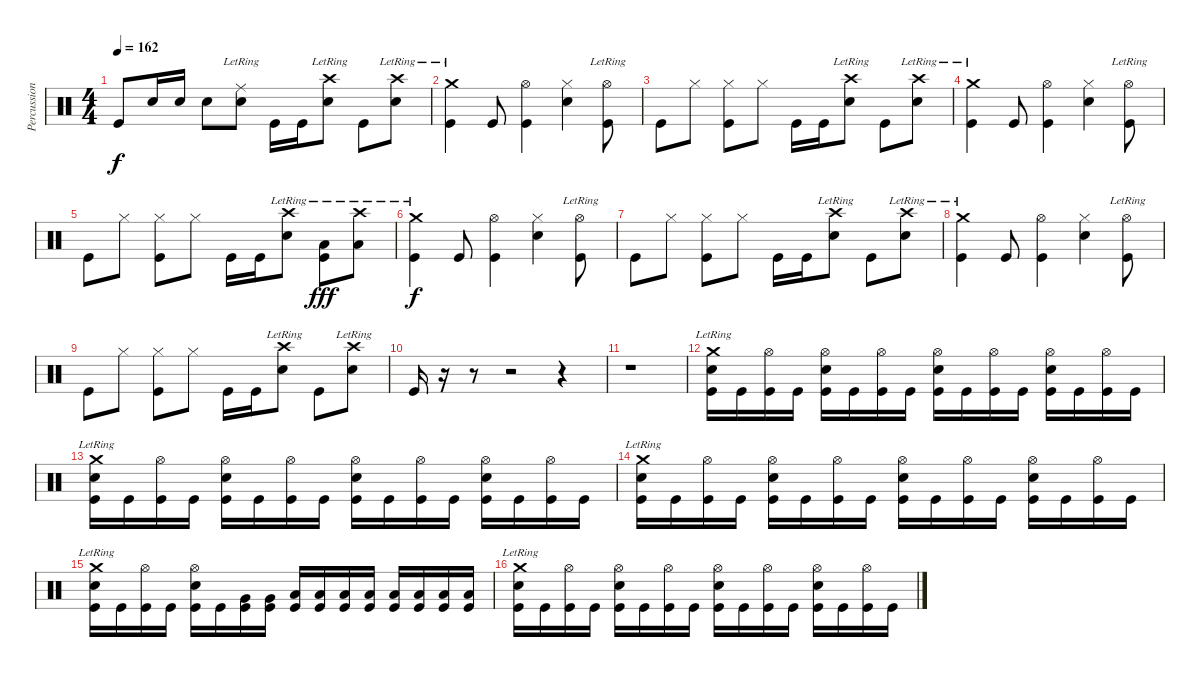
\track ("Percussions" "Percussion") {instrument percussion}
\staff {score}
\articulation defaults
\ts (4 4)
\tempo 162
\clef neutral
\ks c "Kick (hit)".8{dy f} "Snare (hit) 2".16 "Snare (hit) 2".16 "Snare (hit) 2".8
("Ride (middle)"{lr} "Snare (hit) 2").8 "Kick (hit)".16 "Kick (hit)".16 ("Crash high (hit)"{lr} "Snare (hit) 2").8 "Kick (hit)".8 ("Crash high (hit)"{lr} "Snare (hit) 2").8 |
("Crash medium (hit)"{lr} "Kick (hit)").4 "Kick (hit)".8 ("Hi-Hat (open)" "Kick (hit)").4 ("Hi-Hat (closed)" "Snare (hit) 2").4 ("Hi-Hat (open)"{lr} "Kick (hit)").8 |
"Kick (hit)".8 "Hi-Hat (closed)".8 ("Hi-Hat (closed)" "Kick (hit)").8 "Hi-Hat (closed)".8 "Kick (hit)".16 "Kick (hit)".16 ("Crash high (hit)"{lr} "Snare (hit) 2").8 "Kick (hit)".8 ("Crash high (hit)"{lr} "Snare (hit) 2").8 |
("Crash medium (hit)"{lr} "Kick (hit)").4 "Kick (hit)".8 ("Hi-Hat (open)" "Kick (hit)").4 ("Hi-Hat (closed)" "Snare (hit) 2").4 ("Hi-Hat (open)"{lr} "Kick (hit)").8 |
"Kick (hit)".8 "Hi-Hat (closed)".8 ("Hi-Hat (closed)" "Kick (hit)").8 "Hi-Hat (closed)".8 "Kick (hit)".16 "Kick (hit)".16 ("Crash high (hit)"{lr} "Snare (hit) 2").8 ("Low Floor Tom (hit)"{lr} "Kick (hit)").8{dy fff} ("Crash high (hit)"{lr} "Low Floor Tom (hit)"{lr}).8 |
("Crash medium (hit)"{lr} "Kick (hit)").4{dy f} "Kick (hit)".8 ("Hi-Hat (open)" "Kick (hit)").4 ("Hi-Hat (closed)" "Snare (hit) 2").4 ("Hi-Hat (open)"{lr} "Kick (hit)").8 |
"Kick (hit)".8 "Hi-Hat (closed)".8 ("Hi-Hat (closed)" "Kick (hit)").8 "Hi-Hat (closed)".8 "Kick (hit)".16 "Kick (hit)".16 ("Crash high (hit)"{lr} "Snare (hit) 2").8 "Kick (hit)".8 ("Crash high (hit)"{lr} "Snare (hit) 2").8 |
("Crash medium (hit)"{lr} "Kick (hit)").4 "Kick (hit)".8 ("Hi-Hat (open)" "Kick (hit)").4 ("Hi-Hat (closed)" "Snare (hit) 2").4 ("Hi-Hat (open)"{lr} "Kick (hit)").8 |
"Kick (hit)".8 "Hi-Hat (closed)".8 ("Hi-Hat (closed)" "Kick (hit)").8 "Hi-Hat (closed)".8 "Kick (hit)".16 "Kick (hit)".16 ("Crash high (hit)"{lr} "Snare (hit) 2").8 "Kick (hit)".8 ("Crash high (hit)"{lr} "Snare (hit) 2").8 |
"Kick (hit)".16 r.16 r.8 r.2 r.4 |
r.1 |
("Crash medium (hit)"{lr} "Snare (hit) 2" "Kick (hit)").16 "Kick (hit)".16 ("Hi-Hat (open)" "Kick (hit)").16 "Kick (hit)".16 ("Hi-Hat (open)" "Snare (hit) 2" "Kick (hit)").16 "Kick (hit)".16 ("Hi-Hat (open)" "Kick (hit)").16 "Kick (hit)".16 ("Hi-Hat (open)" "Snare (hit) 2" "Kick (hit)").16 "Kick (hit)".16 ("Hi-Hat (open)" "Kick (hit)").16 "Kick (hit)".16 ("Hi-Hat (open)" "Snare (hit) 2" "Kick (hit)").16 "Kick (hit)".16 ("Hi-Hat (open)" "Kick (hit)").16 "Kick (hit)".16 |
("Crash medium (hit)"{lr} "Snare (hit) 2" "Kick (hit)").16 "Kick (hit)".16 ("Hi-Hat (open)" "Kick (hit)").16 "Kick (hit)".16 ("Hi-Hat (open)" "Snare (hit) 2" "Kick (hit)").16 "Kick (hit)".16 ("Hi-Hat (open)" "Kick (hit)").16 "Kick (hit)".16 ("Hi-Hat (open)" "Snare (hit) 2" "Kick (hit)").16 "Kick (hit)".16 ("Hi-Hat (open)" "Kick (hit)").16 "Kick (hit)".16 ("Hi-Hat (open)" "Snare (hit) 2" "Kick (hit)").16 "Kick (hit)".16 ("Hi-Hat (open)" "Kick (hit)").16 "Kick (hit)".16 |
("Crash medium (hit)"{lr} "Snare (hit) 2" "Kick (hit)").16 "Kick (hit)".16 ("Hi-Hat (open)" "Kick (hit)").16 "Kick (hit)".16 ("Hi-Hat (open)" "Snare (hit) 2" "Kick (hit)").16 "Kick (hit)".16 ("Hi-Hat (open)" "Kick (hit)").16 "Kick (hit)".16 ("Hi-Hat (open)" "Snare (hit) 2" "Kick (hit)").16 "Kick (hit)".16 ("Hi-Hat (open)" "Kick (hit)").16 "Kick (hit)".16 ("Hi-Hat (open)" "Snare (hit) 2" "Kick (hit)").16 "Kick (hit)".16 ("Hi-Hat (open)" "Kick (hit)").16 "Kick (hit)".16 |
("Crash medium (hit)"{lr} "Snare (hit) 2" "Kick (hit)").16 "Kick (hit)".16 ("Hi-Hat (open)" "Kick (hit)").16 "Kick (hit)".16 ("Hi-Hat (open)" "Snare (hit) 2" "Kick (hit)").16 "Kick (hit)".16 ("Very Low Tom (hit)" "Kick (hit)").16 ("Very Low Tom (hit)" "Kick (hit)").16 ("Low Floor Tom (hit)" "Kick (hit)").16 ("Low Floor Tom (hit)" "Kick (hit)").16 ("Low Floor Tom (hit)" "Kick (hit)").16 ("Low Floor Tom (hit)" "Kick (hit)").16 ("Low Floor Tom (hit)" "Kick (hit)").16 ("Low Floor Tom (hit)" "Kick (hit)").16 ("Low Floor Tom (hit)" "Kick (hit)").16 ("Low Floor Tom (hit)" "Kick (hit)").16 |
("Crash medium (hit)"{lr} "Snare (hit) 2" "Kick (hit)").16 "Kick (hit)".16 ("Hi-Hat (open)" "Kick (hit)").16 "Kick (hit)".16 ("Hi-Hat (open)" "Snare (hit) 2" "Kick (hit)").16 "Kick (hit)".16 ("Hi-Hat (open)" "Kick (hit)").16 "Kick (hit)".16 ("Hi-Hat (open)" "Snare (hit) 2" "Kick (hit)").16 "Kick (hit)".16 ("Hi-Hat (open)" "Kick (hit)").16 "Kick (hit)".16 ("Hi-Hat (open)" "Snare (hit) 2" "Kick (hit)").16 "Kick (hit)".16 ("Hi-Hat (open)" "Kick (hit)").16 "Kick (hit)".16
